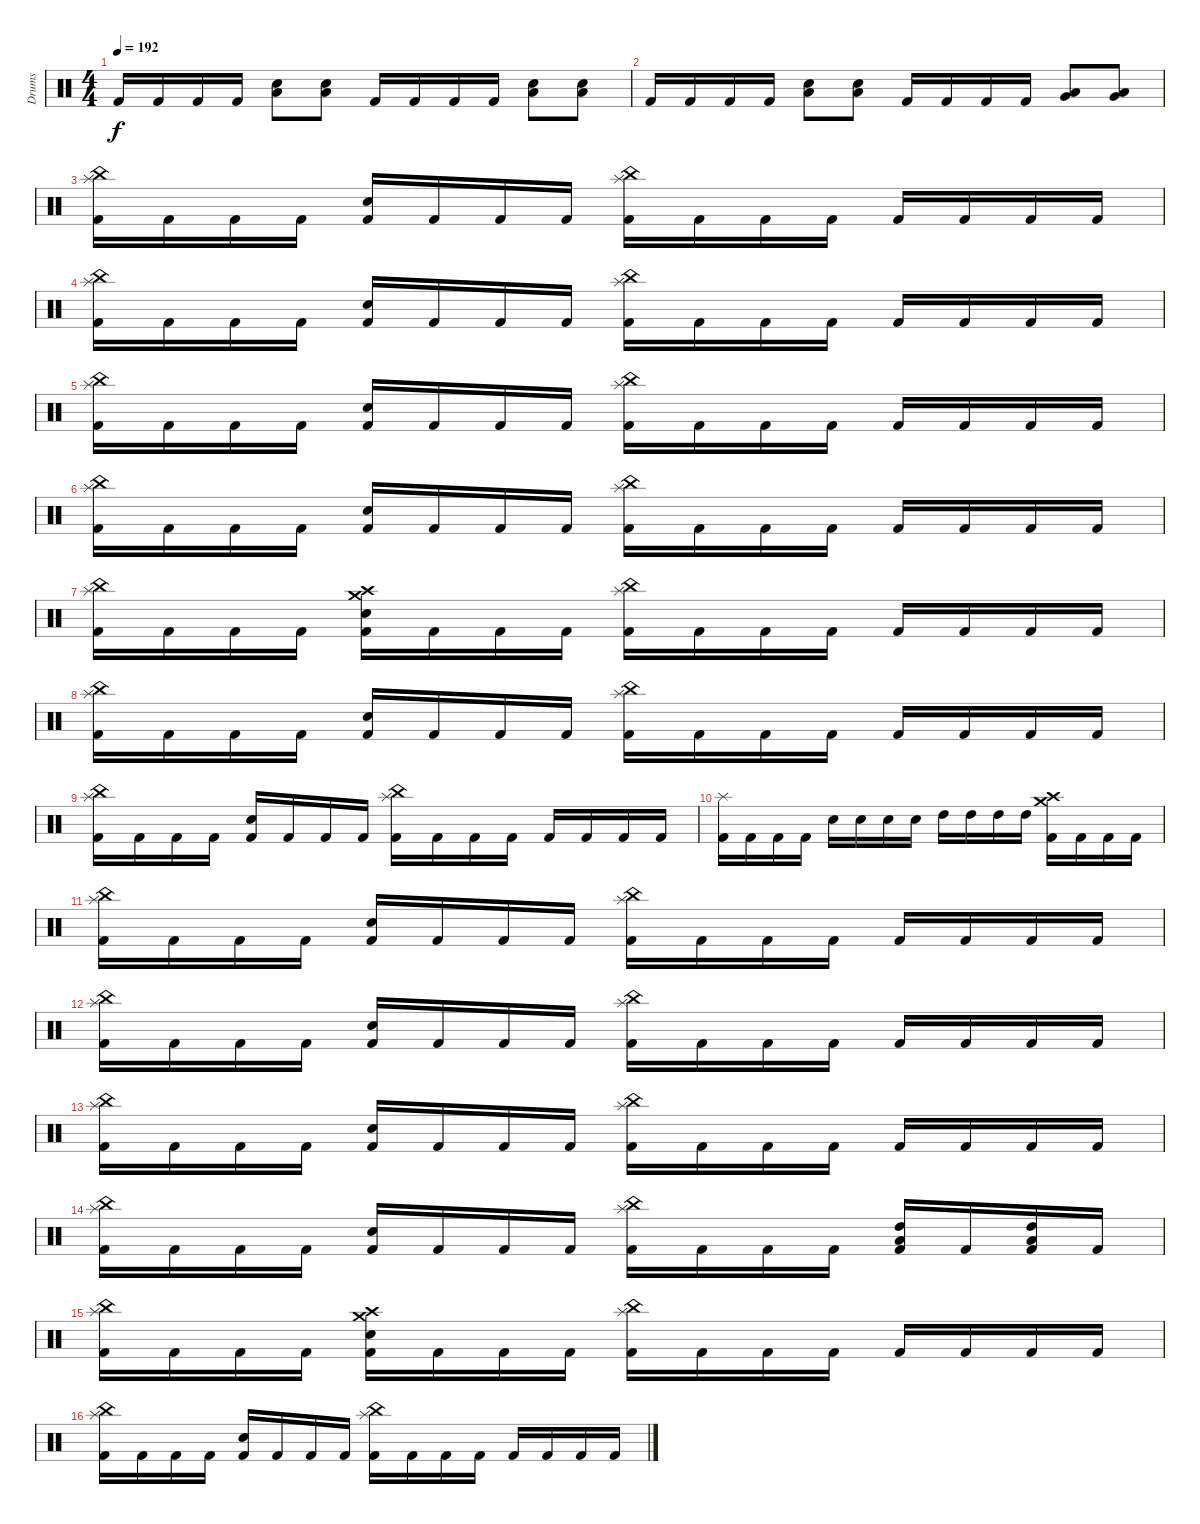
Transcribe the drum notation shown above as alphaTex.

\track ("Drums" "Drums") {instrument percussion}
\staff {score}
\articulation defaults
\ts (4 4)
\tempo 192
\clef neutral
\ks c "Kick (hit) 2".16{dy f} "Kick (hit) 2".16 "Kick (hit) 2".16 "Kick (hit) 2".16
("Low Tom (hit)" "Electric Snare (hit)").8 ("Low Tom (hit)" "Electric Snare (hit)").8 "Kick (hit) 2".16 "Kick (hit) 2".16 "Kick (hit) 2".16 "Kick (hit) 2".16 ("Low Tom (hit)" "Electric Snare (hit)").8 ("Low Tom (hit)" "Electric Snare (hit)").8 |
"Kick (hit) 2".16 "Kick (hit) 2".16 "Kick (hit) 2".16 "Kick (hit) 2".16 ("Low Tom (hit)" "Electric Snare (hit)").8 ("Low Tom (hit)" "Electric Snare (hit)").8 "Kick (hit) 2".16 "Kick (hit) 2".16 "Kick (hit) 2".16 "Kick (hit) 2".16 ("Low Tom (hit)" "Very Low Tom (hit)").8 ("Low Tom (hit)" "Very Low Tom (hit)").8 |
("China (hit)" "Splash (hit)" "Kick (hit) 2").16 "Kick (hit) 2".16 "Kick (hit) 2".16 "Kick (hit) 2".16 ("Electric Snare (hit)" "Kick (hit) 2").16 "Kick (hit) 2".16 "Kick (hit) 2".16 "Kick (hit) 2".16 ("China (hit)" "Splash (hit)" "Kick (hit) 2").16 "Kick (hit) 2".16 "Kick (hit) 2".16 "Kick (hit) 2".16 "Kick (hit) 2".16 "Kick (hit) 2".16 "Kick (hit) 2".16 "Kick (hit) 2".16 |
("China (hit)" "Splash (hit)" "Kick (hit) 2").16 "Kick (hit) 2".16 "Kick (hit) 2".16 "Kick (hit) 2".16 ("Electric Snare (hit)" "Kick (hit) 2").16 "Kick (hit) 2".16 "Kick (hit) 2".16 "Kick (hit) 2".16 ("China (hit)" "Splash (hit)" "Kick (hit) 2").16 "Kick (hit) 2".16 "Kick (hit) 2".16 "Kick (hit) 2".16 "Kick (hit) 2".16 "Kick (hit) 2".16 "Kick (hit) 2".16 "Kick (hit) 2".16 |
("China (hit)" "Splash (hit)" "Kick (hit) 2").16 "Kick (hit) 2".16 "Kick (hit) 2".16 "Kick (hit) 2".16 ("Electric Snare (hit)" "Kick (hit) 2").16 "Kick (hit) 2".16 "Kick (hit) 2".16 "Kick (hit) 2".16 ("China (hit)" "Splash (hit)" "Kick (hit) 2").16 "Kick (hit) 2".16 "Kick (hit) 2".16 "Kick (hit) 2".16 "Kick (hit) 2".16 "Kick (hit) 2".16 "Kick (hit) 2".16 "Kick (hit) 2".16 |
("China (hit)" "Splash (hit)" "Kick (hit) 2").16 "Kick (hit) 2".16 "Kick (hit) 2".16 "Kick (hit) 2".16 ("Electric Snare (hit)" "Kick (hit) 2").16 "Kick (hit) 2".16 "Kick (hit) 2".16 "Kick (hit) 2".16 ("China (hit)" "Splash (hit)" "Kick (hit) 2").16 "Kick (hit) 2".16 "Kick (hit) 2".16 "Kick (hit) 2".16 "Kick (hit) 2".16 "Kick (hit) 2".16 "Kick (hit) 2".16 "Kick (hit) 2".16 |
("China (hit)" "Splash (hit)" "Kick (hit) 2").16 "Kick (hit) 2".16 "Kick (hit) 2".16 "Kick (hit) 2".16 ("Crash high (hit)" "Crash medium (hit)" "Electric Snare (hit)" "Kick (hit) 2").16 "Kick (hit) 2".16 "Kick (hit) 2".16 "Kick (hit) 2".16 ("China (hit)" "Splash (hit)" "Kick (hit) 2").16 "Kick (hit) 2".16 "Kick (hit) 2".16 "Kick (hit) 2".16 "Kick (hit) 2".16 "Kick (hit) 2".16 "Kick (hit) 2".16 "Kick (hit) 2".16 |
("China (hit)" "Splash (hit)" "Kick (hit) 2").16 "Kick (hit) 2".16 "Kick (hit) 2".16 "Kick (hit) 2".16 ("Electric Snare (hit)" "Kick (hit) 2").16 "Kick (hit) 2".16 "Kick (hit) 2".16 "Kick (hit) 2".16 ("China (hit)" "Splash (hit)" "Kick (hit) 2").16 "Kick (hit) 2".16 "Kick (hit) 2".16 "Kick (hit) 2".16 "Kick (hit) 2".16 "Kick (hit) 2".16 "Kick (hit) 2".16 "Kick (hit) 2".16 |
("China (hit)" "Splash (hit)" "Kick (hit) 2").16 "Kick (hit) 2".16 "Kick (hit) 2".16 "Kick (hit) 2".16 ("Electric Snare (hit)" "Kick (hit) 2").16 "Kick (hit) 2".16 "Kick (hit) 2".16 "Kick (hit) 2".16 ("China (hit)" "Splash (hit)" "Kick (hit) 2").16 "Kick (hit) 2".16 "Kick (hit) 2".16 "Kick (hit) 2".16 "Kick (hit) 2".16 "Kick (hit) 2".16 "Kick (hit) 2".16 "Kick (hit) 2".16 |
("Splash (hit)" "Kick (hit) 2").16 "Kick (hit) 2".16 "Kick (hit) 2".16 "Kick (hit) 2".16 "Electric Snare (hit)".16 "Electric Snare (hit)".16 "Electric Snare (hit)".16 "Electric Snare (hit)".16 "High Tom (hit)".16 "High Tom (hit)".16 "High Tom (hit)".16 "High Tom (hit)".16 ("Crash medium (hit)" "Crash high (hit)" "Kick (hit) 2").16 "Kick (hit) 2".16 "Kick (hit) 2".16 "Kick (hit) 2".16 |
("China (hit)" "Splash (hit)" "Kick (hit) 2").16 "Kick (hit) 2".16 "Kick (hit) 2".16 "Kick (hit) 2".16 ("Electric Snare (hit)" "Kick (hit) 2").16 "Kick (hit) 2".16 "Kick (hit) 2".16 "Kick (hit) 2".16 ("China (hit)" "Splash (hit)" "Kick (hit) 2").16 "Kick (hit) 2".16 "Kick (hit) 2".16 "Kick (hit) 2".16 "Kick (hit) 2".16 "Kick (hit) 2".16 "Kick (hit) 2".16 "Kick (hit) 2".16 |
("China (hit)" "Splash (hit)" "Kick (hit) 2").16 "Kick (hit) 2".16 "Kick (hit) 2".16 "Kick (hit) 2".16 ("Electric Snare (hit)" "Kick (hit) 2").16 "Kick (hit) 2".16 "Kick (hit) 2".16 "Kick (hit) 2".16 ("China (hit)" "Splash (hit)" "Kick (hit) 2").16 "Kick (hit) 2".16 "Kick (hit) 2".16 "Kick (hit) 2".16 "Kick (hit) 2".16 "Kick (hit) 2".16 "Kick (hit) 2".16 "Kick (hit) 2".16 |
("China (hit)" "Splash (hit)" "Kick (hit) 2").16 "Kick (hit) 2".16 "Kick (hit) 2".16 "Kick (hit) 2".16 ("Electric Snare (hit)" "Kick (hit) 2").16 "Kick (hit) 2".16 "Kick (hit) 2".16 "Kick (hit) 2".16 ("China (hit)" "Splash (hit)" "Kick (hit) 2").16 "Kick (hit) 2".16 "Kick (hit) 2".16 "Kick (hit) 2".16 "Kick (hit) 2".16 "Kick (hit) 2".16 "Kick (hit) 2".16 "Kick (hit) 2".16 |
("China (hit)" "Splash (hit)" "Kick (hit) 2").16 "Kick (hit) 2".16 "Kick (hit) 2".16 "Kick (hit) 2".16 ("Electric Snare (hit)" "Kick (hit) 2").16 "Kick (hit) 2".16 "Kick (hit) 2".16 "Kick (hit) 2".16 ("China (hit)" "Splash (hit)" "Kick (hit) 2").16 "Kick (hit) 2".16 "Kick (hit) 2".16 "Kick (hit) 2".16 ("High Tom (hit)" "Low Tom (hit)" "Kick (hit) 2").16 "Kick (hit) 2".16 ("High Tom (hit)" "Low Tom (hit)" "Kick (hit) 2").16 "Kick (hit) 2".16 |
("China (hit)" "Splash (hit)" "Kick (hit) 2").16 "Kick (hit) 2".16 "Kick (hit) 2".16 "Kick (hit) 2".16 ("Crash high (hit)" "Crash medium (hit)" "Electric Snare (hit)" "Kick (hit) 2").16 "Kick (hit) 2".16 "Kick (hit) 2".16 "Kick (hit) 2".16 ("China (hit)" "Splash (hit)" "Kick (hit) 2").16 "Kick (hit) 2".16 "Kick (hit) 2".16 "Kick (hit) 2".16 "Kick (hit) 2".16 "Kick (hit) 2".16 "Kick (hit) 2".16 "Kick (hit) 2".16 |
("China (hit)" "Splash (hit)" "Kick (hit) 2").16 "Kick (hit) 2".16 "Kick (hit) 2".16 "Kick (hit) 2".16 ("Electric Snare (hit)" "Kick (hit) 2").16 "Kick (hit) 2".16 "Kick (hit) 2".16 "Kick (hit) 2".16 ("China (hit)" "Splash (hit)" "Kick (hit) 2").16 "Kick (hit) 2".16 "Kick (hit) 2".16 "Kick (hit) 2".16 "Kick (hit) 2".16 "Kick (hit) 2".16 "Kick (hit) 2".16 "Kick (hit) 2".16
